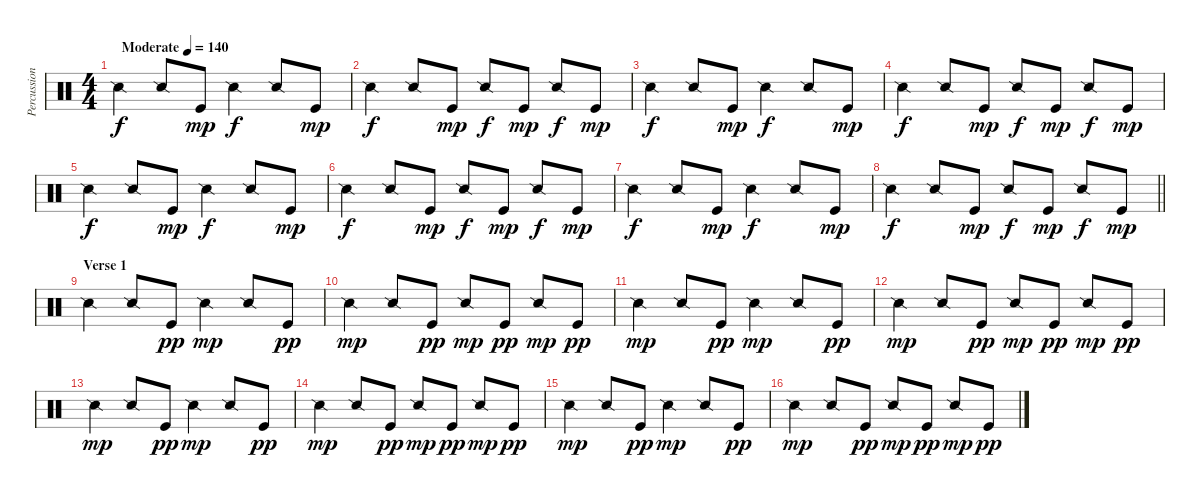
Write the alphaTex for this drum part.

\track ("Percussion" "Percussion") {instrument percussion}
\staff {score}
\articulation defaults
\ts (4 4)
\tempo (140 "Moderate")
\clef neutral
\ks c "Snare (side stick) 2".4{dy f} "Snare (side stick) 2".8 "Kick (hit)".8{dy mp} "Snare (side stick) 2".4{dy f} "Snare (side stick) 2".8 "Kick (hit)".8{dy mp}
|
"Snare (side stick) 2".4{dy f} "Snare (side stick) 2".8 "Kick (hit)".8{dy mp} "Snare (side stick) 2".8{dy f} "Kick (hit)".8{dy mp} "Snare (side stick) 2".8{dy f} "Kick (hit)".8{dy mp} |
"Snare (side stick) 2".4{dy f} "Snare (side stick) 2".8 "Kick (hit)".8{dy mp} "Snare (side stick) 2".4{dy f} "Snare (side stick) 2".8 "Kick (hit)".8{dy mp} |
"Snare (side stick) 2".4{dy f} "Snare (side stick) 2".8 "Kick (hit)".8{dy mp} "Snare (side stick) 2".8{dy f} "Kick (hit)".8{dy mp} "Snare (side stick) 2".8{dy f} "Kick (hit)".8{dy mp} |
"Snare (side stick) 2".4{dy f} "Snare (side stick) 2".8 "Kick (hit)".8{dy mp} "Snare (side stick) 2".4{dy f} "Snare (side stick) 2".8 "Kick (hit)".8{dy mp} |
"Snare (side stick) 2".4{dy f} "Snare (side stick) 2".8 "Kick (hit)".8{dy mp} "Snare (side stick) 2".8{dy f} "Kick (hit)".8{dy mp} "Snare (side stick) 2".8{dy f} "Kick (hit)".8{dy mp} |
"Snare (side stick) 2".4{dy f} "Snare (side stick) 2".8 "Kick (hit)".8{dy mp} "Snare (side stick) 2".4{dy f} "Snare (side stick) 2".8 "Kick (hit)".8{dy mp} |
\barLineRight lightlight "Snare (side stick) 2".4{dy f} "Snare (side stick) 2".8 "Kick (hit)".8{dy mp} "Snare (side stick) 2".8{dy f} "Kick (hit)".8{dy mp} "Snare (side stick) 2".8{dy f} "Kick (hit)".8{dy mp}
|
\section ("" "Verse 1")
"Snare (side stick) 2".4 "Snare (side stick) 2".8 "Kick (hit)".8{dy pp} "Snare (side stick) 2".4{dy mp} "Snare (side stick) 2".8 "Kick (hit)".8{dy pp} |
"Snare (side stick) 2".4{dy mp} "Snare (side stick) 2".8 "Kick (hit)".8{dy pp} "Snare (side stick) 2".8{dy mp} "Kick (hit)".8{dy pp} "Snare (side stick) 2".8{dy mp} "Kick (hit)".8{dy pp} |
"Snare (side stick) 2".4{dy mp} "Snare (side stick) 2".8 "Kick (hit)".8{dy pp} "Snare (side stick) 2".4{dy mp} "Snare (side stick) 2".8 "Kick (hit)".8{dy pp} |
"Snare (side stick) 2".4{dy mp} "Snare (side stick) 2".8 "Kick (hit)".8{dy pp} "Snare (side stick) 2".8{dy mp} "Kick (hit)".8{dy pp} "Snare (side stick) 2".8{dy mp} "Kick (hit)".8{dy pp} |
"Snare (side stick) 2".4{dy mp} "Snare (side stick) 2".8 "Kick (hit)".8{dy pp} "Snare (side stick) 2".4{dy mp} "Snare (side stick) 2".8 "Kick (hit)".8{dy pp} |
"Snare (side stick) 2".4{dy mp} "Snare (side stick) 2".8 "Kick (hit)".8{dy pp} "Snare (side stick) 2".8{dy mp} "Kick (hit)".8{dy pp} "Snare (side stick) 2".8{dy mp} "Kick (hit)".8{dy pp} |
"Snare (side stick) 2".4{dy mp} "Snare (side stick) 2".8 "Kick (hit)".8{dy pp} "Snare (side stick) 2".4{dy mp} "Snare (side stick) 2".8 "Kick (hit)".8{dy pp} |
"Snare (side stick) 2".4{dy mp} "Snare (side stick) 2".8 "Kick (hit)".8{dy pp} "Snare (side stick) 2".8{dy mp} "Kick (hit)".8{dy pp} "Snare (side stick) 2".8{dy mp} "Kick (hit)".8{dy pp}
